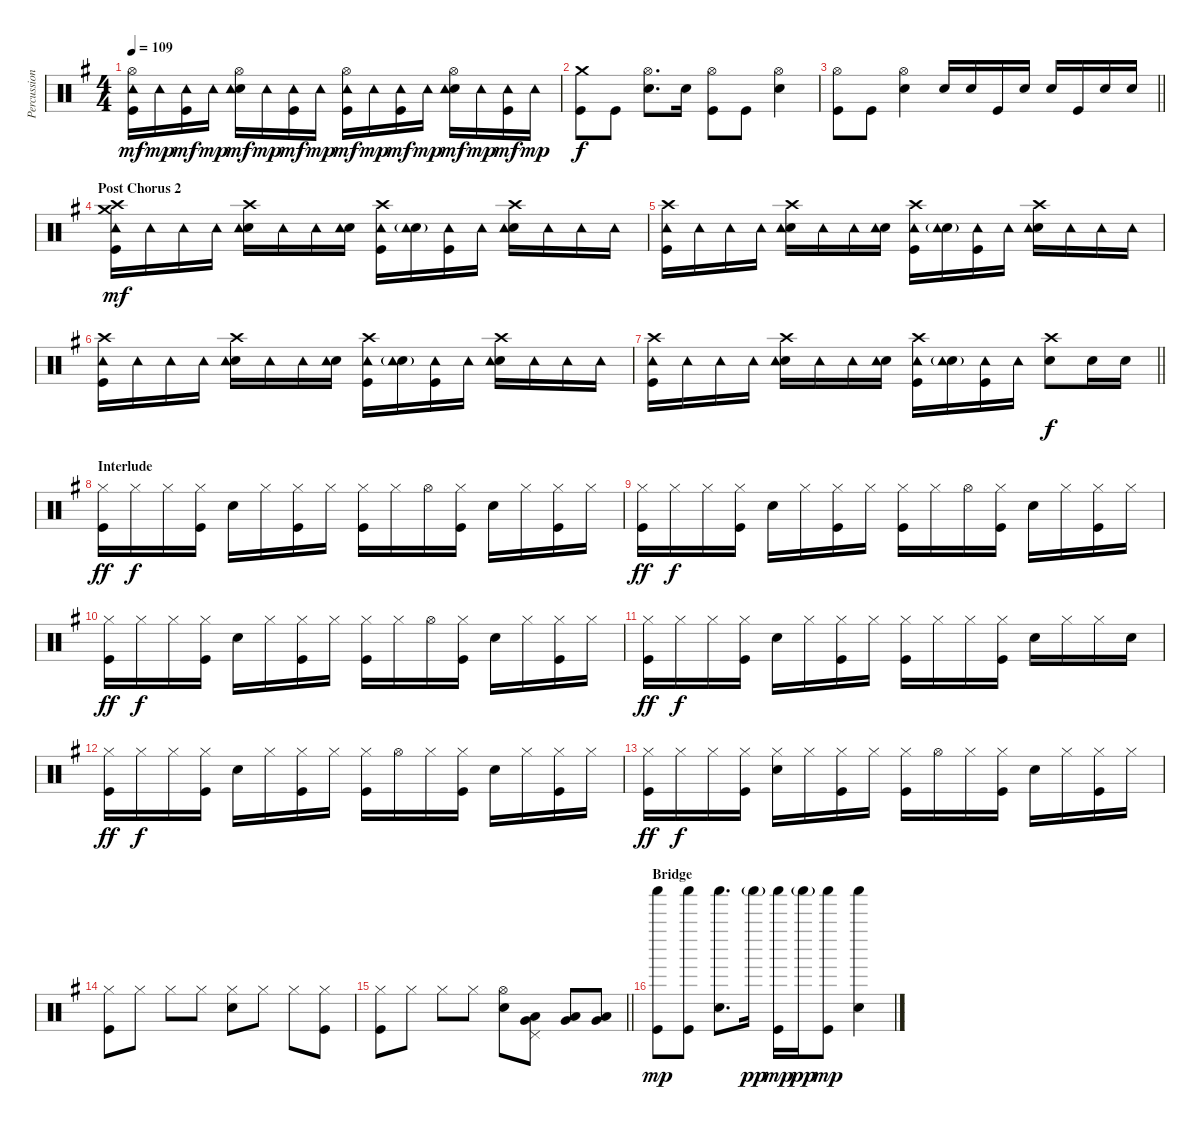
\track ("Percussion" "Percussion") {instrument percussion}
\staff {score}
\articulation defaults
\ts (4 4)
\tempo 109
\clef neutral
\ks g
("Hi-Hat (open)" "Tambourine (hit)" "Kick (hit)").16{dy mf} "Tambourine (hit)".16{dy mp} ("Tambourine (hit)" "Kick (hit)").16{dy mf} "Tambourine (hit)".16{dy mp} ("Hi-Hat (open)" "Electric Snare (hit)" "Tambourine (hit)").16{dy mf} "Tambourine (hit)".16{dy mp} ("Tambourine (hit)" "Kick (hit)").16{dy mf} "Tambourine (hit)".16{dy mp} ("Hi-Hat (open)" "Tambourine (hit)" "Kick (hit)").16{dy mf} "Tambourine (hit)".16{dy mp} ("Tambourine (hit)" "Kick (hit)").16{dy mf} "Tambourine (hit)".16{dy mp} ("Hi-Hat (open)" "Electric Snare (hit)" "Tambourine (hit)").16{dy mf} "Tambourine (hit)".16{dy mp} ("Tambourine (hit)" "Kick (hit)").16{dy mf} "Tambourine (hit)".16{dy mp} |
("Crash medium (hit)" "Kick (hit)").8{dy f} "Kick (hit)".8 ("Hi-Hat (open)" "Electric Snare (hit)").8{d} "Electric Snare (hit)".16 ("Hi-Hat (open)" "Kick (hit)").8 "Kick (hit)".8 ("Hi-Hat (open)" "Electric Snare (hit)").4 |
\barLineRight lightlight
("Hi-Hat (open)" "Kick (hit)").8 "Kick (hit)".8 ("Hi-Hat (open)" "Electric Snare (hit)").4 "Electric Snare (hit)".16 "Electric Snare (hit)".16 "Kick (hit)".16 "Electric Snare (hit)".16 "Electric Snare (hit)".16 "Kick (hit)".16 "Electric Snare (hit)".16 "Electric Snare (hit)".16 |
\section ("" "Post Chorus 2")
("Crash medium (hit)" "Crash high (hit)" "Tambourine (hit)" "Kick (hit)").16{dy mf} "Tambourine (hit)".16 "Tambourine (hit)".16 "Tambourine (hit)".16 ("Crash high (hit)" "Electric Snare (hit)" "Tambourine (hit)").16 "Tambourine (hit)".16 "Tambourine (hit)".16 ("Electric Snare (hit)" "Tambourine (hit)").16 ("Crash high (hit)" "Tambourine (hit)" "Kick (hit)").16 ("Electric Snare (hit)"{g} "Tambourine (hit)").16 ("Tambourine (hit)" "Kick (hit)").16 "Tambourine (hit)".16 ("Crash high (hit)" "Electric Snare (hit)" "Tambourine (hit)").16 "Tambourine (hit)".16 "Tambourine (hit)".16 "Tambourine (hit)".16 |
("Crash high (hit)" "Tambourine (hit)" "Kick (hit)").16 "Tambourine (hit)".16 "Tambourine (hit)".16 "Tambourine (hit)".16 ("Crash high (hit)" "Electric Snare (hit)" "Tambourine (hit)").16 "Tambourine (hit)".16 "Tambourine (hit)".16 ("Electric Snare (hit)" "Tambourine (hit)").16 ("Crash high (hit)" "Tambourine (hit)" "Kick (hit)").16 ("Electric Snare (hit)"{g} "Tambourine (hit)").16 ("Tambourine (hit)" "Kick (hit)").16 "Tambourine (hit)".16 ("Crash high (hit)" "Electric Snare (hit)" "Tambourine (hit)").16 "Tambourine (hit)".16 "Tambourine (hit)".16 "Tambourine (hit)".16 |
("Crash high (hit)" "Tambourine (hit)" "Kick (hit)").16 "Tambourine (hit)".16 "Tambourine (hit)".16 "Tambourine (hit)".16 ("Crash high (hit)" "Electric Snare (hit)" "Tambourine (hit)").16 "Tambourine (hit)".16 "Tambourine (hit)".16 ("Electric Snare (hit)" "Tambourine (hit)").16 ("Crash high (hit)" "Tambourine (hit)" "Kick (hit)").16 ("Electric Snare (hit)"{g} "Tambourine (hit)").16 ("Tambourine (hit)" "Kick (hit)").16 "Tambourine (hit)".16 ("Crash high (hit)" "Electric Snare (hit)" "Tambourine (hit)").16 "Tambourine (hit)".16 "Tambourine (hit)".16 "Tambourine (hit)".16 |
\barLineRight lightlight
("Crash high (hit)" "Tambourine (hit)" "Kick (hit)").16 "Tambourine (hit)".16 "Tambourine (hit)".16 "Tambourine (hit)".16 ("Crash high (hit)" "Electric Snare (hit)" "Tambourine (hit)").16 "Tambourine (hit)".16 "Tambourine (hit)".16 ("Electric Snare (hit)" "Tambourine (hit)").16 ("Crash high (hit)" "Tambourine (hit)" "Kick (hit)").16 ("Electric Snare (hit)"{g} "Tambourine (hit)").16 ("Tambourine (hit)" "Kick (hit)").16 "Tambourine (hit)".16 ("Crash high (hit)" "Electric Snare (hit)").8{dy f} "Electric Snare (hit)".16 "Electric Snare (hit)".16 |
\section ("" "Interlude")
("Hi-Hat (closed)" "Kick (hit)").16{dy ff} "Hi-Hat (closed)".16{dy f} "Hi-Hat (closed)".16 ("Hi-Hat (closed)" "Kick (hit)").16 "Electric Snare (hit)".16 "Hi-Hat (closed)".16 ("Hi-Hat (closed)" "Kick (hit)").16 "Hi-Hat (closed)".16 ("Hi-Hat (closed)" "Kick (hit)").16 "Hi-Hat (closed)".16 "Hi-Hat (open)".16 ("Hi-Hat (closed)" "Kick (hit)").16 "Electric Snare (hit)".16 "Hi-Hat (closed)".16 ("Hi-Hat (closed)" "Kick (hit)").16 "Hi-Hat (closed)".16 |
("Hi-Hat (closed)" "Kick (hit)").16{dy ff} "Hi-Hat (closed)".16{dy f} "Hi-Hat (closed)".16 ("Hi-Hat (closed)" "Kick (hit)").16 "Electric Snare (hit)".16 "Hi-Hat (closed)".16 ("Hi-Hat (closed)" "Kick (hit)").16 "Hi-Hat (closed)".16 ("Hi-Hat (closed)" "Kick (hit)").16 "Hi-Hat (closed)".16 "Hi-Hat (open)".16 ("Hi-Hat (closed)" "Kick (hit)").16 "Electric Snare (hit)".16 "Hi-Hat (closed)".16 ("Hi-Hat (closed)" "Kick (hit)").16 "Hi-Hat (closed)".16 |
("Hi-Hat (closed)" "Kick (hit)").16{dy ff} "Hi-Hat (closed)".16{dy f} "Hi-Hat (closed)".16 ("Hi-Hat (closed)" "Kick (hit)").16 "Electric Snare (hit)".16 "Hi-Hat (closed)".16 ("Hi-Hat (closed)" "Kick (hit)").16 "Hi-Hat (closed)".16 ("Hi-Hat (closed)" "Kick (hit)").16 "Hi-Hat (closed)".16 "Hi-Hat (open)".16 ("Hi-Hat (closed)" "Kick (hit)").16 "Electric Snare (hit)".16 "Hi-Hat (closed)".16 ("Hi-Hat (closed)" "Kick (hit)").16 "Hi-Hat (closed)".16 |
("Hi-Hat (closed)" "Kick (hit)").16{dy ff} "Hi-Hat (closed)".16{dy f} "Hi-Hat (closed)".16 ("Hi-Hat (closed)" "Kick (hit)").16 "Electric Snare (hit)".16 "Hi-Hat (closed)".16 ("Hi-Hat (closed)" "Kick (hit)").16 "Hi-Hat (closed)".16 ("Hi-Hat (closed)" "Kick (hit)").16 "Hi-Hat (closed)".16 "Hi-Hat (closed)".16 ("Hi-Hat (closed)" "Kick (hit)").16 "Electric Snare (hit)".16 "Hi-Hat (closed)".16 "Hi-Hat (closed)".16 "Electric Snare (hit)".16 |
("Hi-Hat (closed)" "Kick (hit)").16{dy ff} "Hi-Hat (closed)".16{dy f} "Hi-Hat (closed)".16 ("Hi-Hat (closed)" "Kick (hit)").16 "Electric Snare (hit)".16 "Hi-Hat (closed)".16 ("Hi-Hat (closed)" "Kick (hit)").16 "Hi-Hat (closed)".16 ("Hi-Hat (closed)" "Kick (hit)").16 "Hi-Hat (open)".16 "Hi-Hat (closed)".16 ("Hi-Hat (closed)" "Kick (hit)").16 "Electric Snare (hit)".16 "Hi-Hat (closed)".16 ("Hi-Hat (closed)" "Kick (hit)").16 "Hi-Hat (closed)".16 |
("Hi-Hat (closed)" "Kick (hit)").16{dy ff} "Hi-Hat (closed)".16{dy f} "Hi-Hat (closed)".16 ("Hi-Hat (closed)" "Kick (hit)").16 ("Hi-Hat (closed)" "Electric Snare (hit)").16 "Hi-Hat (closed)".16 ("Hi-Hat (closed)" "Kick (hit)").16 "Hi-Hat (closed)".16 ("Hi-Hat (closed)" "Kick (hit)").16 "Hi-Hat (open)".16 "Hi-Hat (closed)".16 ("Hi-Hat (closed)" "Kick (hit)").16 "Electric Snare (hit)".16 "Hi-Hat (closed)".16 ("Hi-Hat (closed)" "Kick (hit)").16 "Hi-Hat (closed)".16 |
("Hi-Hat (closed)" "Kick (hit)").8 "Hi-Hat (closed)".8 "Hi-Hat (closed)".8 "Hi-Hat (closed)".8 ("Hi-Hat (closed)" "Electric Snare (hit)").8 "Hi-Hat (closed)".8 "Hi-Hat (closed)".8 ("Hi-Hat (closed)" "Kick (hit)").8 |
\barLineRight lightlight
("Hi-Hat (closed)" "Kick (hit)").8 "Hi-Hat (closed)".8 "Hi-Hat (closed)".8 "Hi-Hat (closed)".8 ("Hi-Hat (open)" "Electric Snare (hit)").8 ("Pedal Hi-Hat (hit)" "Low Tom (hit)" "Very Low Tom (hit)").8 ("Low Tom (hit)" "Very Low Tom (hit)").8 ("Low Tom (hit)" "Very Low Tom (hit)").8 |
\section ("" "Bridge")
("Shaker (hit)" "Kick (hit)").8{dy mp} ("Shaker (hit)" "Kick (hit)").8 ("Snare (hit) 2" "Shaker (hit)").8{d} "Shaker (hit)"{g}.16{dy pp} ("Shaker (hit)" "Kick (hit)").16{dy mp} "Shaker (hit)"{g}.16{dy pp} ("Shaker (hit)" "Kick (hit)").8{dy mp} ("Snare (hit) 2" "Shaker (hit)").4
